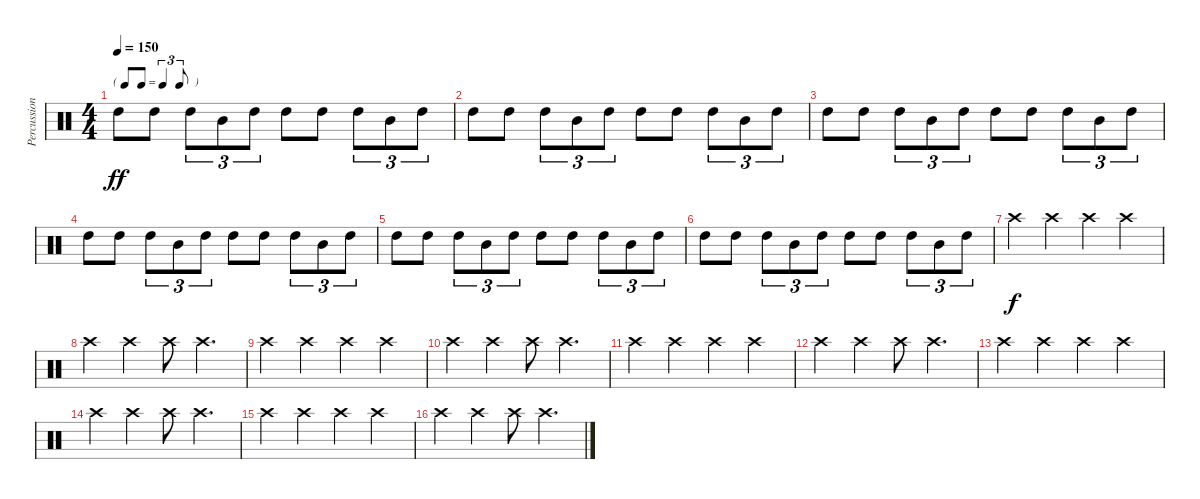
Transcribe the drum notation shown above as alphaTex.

\track ("Percussion" "Percussion") {instrument percussion}
\staff {score}
\articulation defaults
\ts (4 4)
\tf triplet8th
\tempo 150
\clef neutral
\ks c "High Tom (hit)".8{dy ff} "High Tom (hit)".8 "High Tom (hit)".8{tu (3 2)} "Mid Tom (hit)".8{tu (3 2)} "High Tom (hit)".8{tu (3 2)} "High Tom (hit)".8 "High Tom (hit)".8 "High Tom (hit)".8{tu (3 2)} "Mid Tom (hit)".8{tu (3 2)} "High Tom (hit)".8{tu (3 2)}
|
"High Tom (hit)".8 "High Tom (hit)".8 "High Tom (hit)".8{tu (3 2)} "Mid Tom (hit)".8{tu (3 2)} "High Tom (hit)".8{tu (3 2)} "High Tom (hit)".8 "High Tom (hit)".8 "High Tom (hit)".8{tu (3 2)} "Mid Tom (hit)".8{tu (3 2)} "High Tom (hit)".8{tu (3 2)} |
"High Tom (hit)".8 "High Tom (hit)".8 "High Tom (hit)".8{tu (3 2)} "Mid Tom (hit)".8{tu (3 2)} "High Tom (hit)".8{tu (3 2)} "High Tom (hit)".8 "High Tom (hit)".8 "High Tom (hit)".8{tu (3 2)} "Mid Tom (hit)".8{tu (3 2)} "High Tom (hit)".8{tu (3 2)} |
"High Tom (hit)".8 "High Tom (hit)".8 "High Tom (hit)".8{tu (3 2)} "Mid Tom (hit)".8{tu (3 2)} "High Tom (hit)".8{tu (3 2)} "High Tom (hit)".8 "High Tom (hit)".8 "High Tom (hit)".8{tu (3 2)} "Mid Tom (hit)".8{tu (3 2)} "High Tom (hit)".8{tu (3 2)} |
"High Tom (hit)".8 "High Tom (hit)".8 "High Tom (hit)".8{tu (3 2)} "Mid Tom (hit)".8{tu (3 2)} "High Tom (hit)".8{tu (3 2)} "High Tom (hit)".8 "High Tom (hit)".8 "High Tom (hit)".8{tu (3 2)} "Mid Tom (hit)".8{tu (3 2)} "High Tom (hit)".8{tu (3 2)} |
"High Tom (hit)".8 "High Tom (hit)".8 "High Tom (hit)".8{tu (3 2)} "Mid Tom (hit)".8{tu (3 2)} "High Tom (hit)".8{tu (3 2)} "High Tom (hit)".8 "High Tom (hit)".8 "High Tom (hit)".8{tu (3 2)} "Mid Tom (hit)".8{tu (3 2)} "High Tom (hit)".8{tu (3 2)} |
"Crash high (hit)".4{dy f} "Crash high (hit)".4 "Crash high (hit)".4 "Crash high (hit)".4 |
"Crash high (hit)".4 "Crash high (hit)".4 "Crash high (hit)".8 "Crash high (hit)".4{d} |
"Crash high (hit)".4 "Crash high (hit)".4 "Crash high (hit)".4 "Crash high (hit)".4 |
"Crash high (hit)".4 "Crash high (hit)".4 "Crash high (hit)".8 "Crash high (hit)".4{d} |
"Crash high (hit)".4 "Crash high (hit)".4 "Crash high (hit)".4 "Crash high (hit)".4 |
"Crash high (hit)".4 "Crash high (hit)".4 "Crash high (hit)".8 "Crash high (hit)".4{d} |
"Crash high (hit)".4 "Crash high (hit)".4 "Crash high (hit)".4 "Crash high (hit)".4 |
"Crash high (hit)".4 "Crash high (hit)".4 "Crash high (hit)".8 "Crash high (hit)".4{d} |
"Crash high (hit)".4 "Crash high (hit)".4 "Crash high (hit)".4 "Crash high (hit)".4 |
"Crash high (hit)".4 "Crash high (hit)".4 "Crash high (hit)".8 "Crash high (hit)".4{d}
